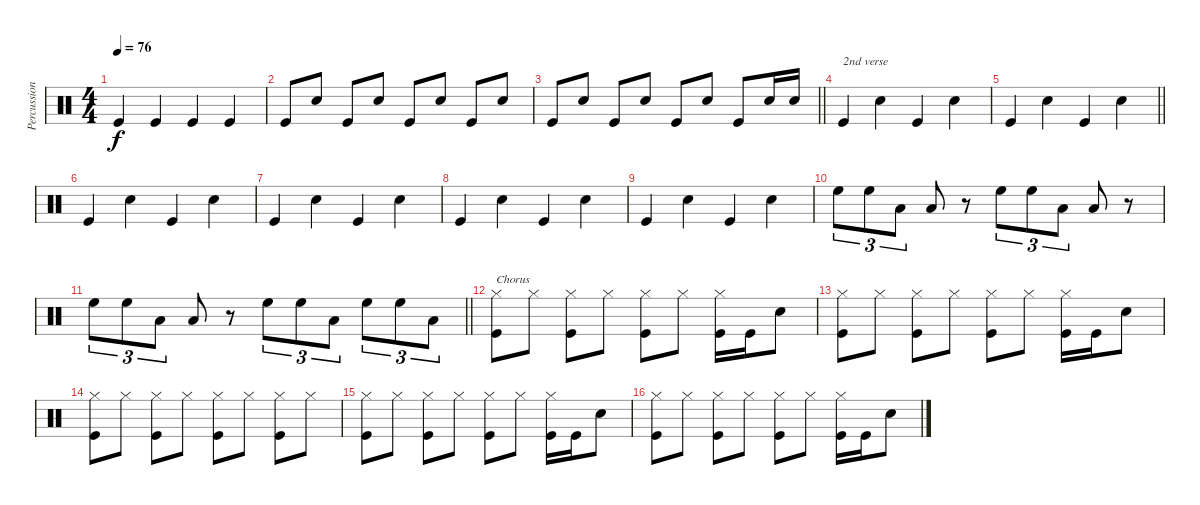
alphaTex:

\track ("Percussion" "Percussion") {instrument percussion}
\staff {score}
\articulation defaults
\ts (4 4)
\tempo 76
\clef neutral
\ks c "Kick (hit)".4{dy f} "Kick (hit)".4 "Kick (hit)".4 "Kick (hit)".4
|
"Kick (hit)".8 "Snare (hit) 2".8 "Kick (hit)".8 "Snare (hit) 2".8 "Kick (hit)".8 "Snare (hit) 2".8 "Kick (hit)".8 "Snare (hit) 2".8 |
\barLineRight lightlight "Kick (hit)".8 "Snare (hit) 2".8 "Kick (hit)".8 "Snare (hit) 2".8 "Kick (hit)".8 "Snare (hit) 2".8 "Kick (hit)".8 "Snare (hit) 2".16 "Snare (hit) 2".16
|
"Kick (hit)".4{txt "2nd verse"} "Snare (hit) 2".4 "Kick (hit)".4 "Snare (hit) 2".4 |
\barLineRight lightlight "Kick (hit)".4 "Snare (hit) 2".4 "Kick (hit)".4 "Snare (hit) 2".4
|
"Kick (hit)".4 "Snare (hit) 2".4 "Kick (hit)".4 "Snare (hit) 2".4 |
"Kick (hit)".4 "Snare (hit) 2".4 "Kick (hit)".4 "Snare (hit) 2".4 |
"Kick (hit)".4 "Snare (hit) 2".4 "Kick (hit)".4 "Snare (hit) 2".4 |
"Kick (hit)".4 "Snare (hit) 2".4 "Kick (hit)".4 "Snare (hit) 2".4 |
"High Floor Tom (hit)".8{tu (3 2)} "High Floor Tom (hit)".8{tu (3 2)} "Low Tom (hit)".8{tu (3 2)} "Low Floor Tom (hit)".8 r.8 "High Floor Tom (hit)".8{tu (3 2)} "High Floor Tom (hit)".8{tu (3 2)} "Low Tom (hit)".8{tu (3 2)} "Low Floor Tom (hit)".8 r.8 |
\barLineRight lightlight "High Floor Tom (hit)".8{tu (3 2)} "High Floor Tom (hit)".8{tu (3 2)} "Low Tom (hit)".8{tu (3 2)} "Low Floor Tom (hit)".8
r.8 "High Floor Tom (hit)".8{tu (3 2)} "High Floor Tom (hit)".8{tu (3 2)} "Low Tom (hit)".8{tu (3 2)} "High Floor Tom (hit)".8{tu (3 2)} "High Floor Tom (hit)".8{tu (3 2)} "Low Tom (hit)".8{tu (3 2)} |
("Hi-Hat (closed)" "Kick (hit)").8{txt "Chorus"} "Hi-Hat (closed)".8 ("Hi-Hat (closed)" "Kick (hit)").8 "Hi-Hat (closed)".8 ("Hi-Hat (closed)" "Kick (hit)").8 "Hi-Hat (closed)".8 ("Hi-Hat (closed)" "Kick (hit)").16 "Kick (hit)".16 "Snare (hit) 2".8 |
("Hi-Hat (closed)" "Kick (hit)").8 "Hi-Hat (closed)".8 ("Hi-Hat (closed)" "Kick (hit)").8 "Hi-Hat (closed)".8 ("Hi-Hat (closed)" "Kick (hit)").8 "Hi-Hat (closed)".8 ("Hi-Hat (closed)" "Kick (hit)").16 "Kick (hit)".16 "Snare (hit) 2".8 |
("Hi-Hat (closed)" "Kick (hit)").8 "Hi-Hat (closed)".8 ("Hi-Hat (closed)" "Kick (hit)").8 "Hi-Hat (closed)".8 ("Hi-Hat (closed)" "Kick (hit)").8 "Hi-Hat (closed)".8 ("Hi-Hat (closed)" "Kick (hit)").8 "Hi-Hat (closed)".8 |
("Hi-Hat (closed)" "Kick (hit)").8 "Hi-Hat (closed)".8 ("Hi-Hat (closed)" "Kick (hit)").8 "Hi-Hat (closed)".8 ("Hi-Hat (closed)" "Kick (hit)").8 "Hi-Hat (closed)".8 ("Hi-Hat (closed)" "Kick (hit)").16 "Kick (hit)".16 "Snare (hit) 2".8 |
("Hi-Hat (closed)" "Kick (hit)").8 "Hi-Hat (closed)".8 ("Hi-Hat (closed)" "Kick (hit)").8 "Hi-Hat (closed)".8 ("Hi-Hat (closed)" "Kick (hit)").8 "Hi-Hat (closed)".8 ("Hi-Hat (closed)" "Kick (hit)").16 "Kick (hit)".16 "Snare (hit) 2".8
